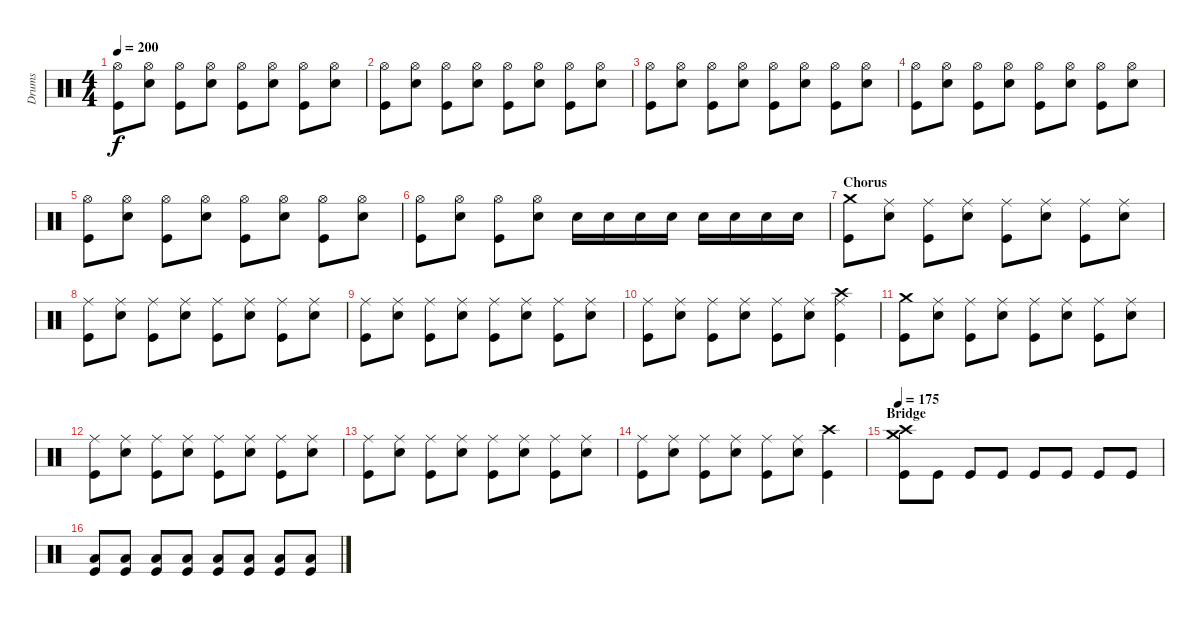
\track ("Drums" "Drums") {instrument percussion}
\staff {score}
\articulation defaults
\ts (4 4)
\tempo 200
\clef neutral
\ks c
("Hi-Hat (open)" "Kick (hit)").8{dy f} ("Hi-Hat (open)" "Snare (hit) 2").8 ("Hi-Hat (open)" "Kick (hit)").8 ("Hi-Hat (open)" "Snare (hit) 2").8 ("Hi-Hat (open)" "Kick (hit)").8 ("Hi-Hat (open)" "Snare (hit) 2").8 ("Hi-Hat (open)" "Kick (hit)").8 ("Hi-Hat (open)" "Snare (hit) 2").8 |
("Hi-Hat (open)" "Kick (hit)").8 ("Hi-Hat (open)" "Snare (hit) 2").8 ("Hi-Hat (open)" "Kick (hit)").8 ("Hi-Hat (open)" "Snare (hit) 2").8 ("Hi-Hat (open)" "Kick (hit)").8 ("Hi-Hat (open)" "Snare (hit) 2").8 ("Hi-Hat (open)" "Kick (hit)").8 ("Hi-Hat (open)" "Snare (hit) 2").8 |
("Hi-Hat (open)" "Kick (hit)").8 ("Hi-Hat (open)" "Snare (hit) 2").8 ("Hi-Hat (open)" "Kick (hit)").8 ("Hi-Hat (open)" "Snare (hit) 2").8 ("Hi-Hat (open)" "Kick (hit)").8 ("Hi-Hat (open)" "Snare (hit) 2").8 ("Hi-Hat (open)" "Kick (hit)").8 ("Hi-Hat (open)" "Snare (hit) 2").8 |
("Hi-Hat (open)" "Kick (hit)").8 ("Hi-Hat (open)" "Snare (hit) 2").8 ("Hi-Hat (open)" "Kick (hit)").8 ("Hi-Hat (open)" "Snare (hit) 2").8 ("Hi-Hat (open)" "Kick (hit)").8 ("Hi-Hat (open)" "Snare (hit) 2").8 ("Hi-Hat (open)" "Kick (hit)").8 ("Hi-Hat (open)" "Snare (hit) 2").8 |
("Hi-Hat (open)" "Kick (hit)").8 ("Hi-Hat (open)" "Snare (hit) 2").8 ("Hi-Hat (open)" "Kick (hit)").8 ("Hi-Hat (open)" "Snare (hit) 2").8 ("Hi-Hat (open)" "Kick (hit)").8 ("Hi-Hat (open)" "Snare (hit) 2").8 ("Hi-Hat (open)" "Kick (hit)").8 ("Hi-Hat (open)" "Snare (hit) 2").8 |
("Hi-Hat (open)" "Kick (hit)").8 ("Hi-Hat (open)" "Snare (hit) 2").8 ("Hi-Hat (open)" "Kick (hit)").8 ("Hi-Hat (open)" "Snare (hit) 2").8 "Snare (hit) 2".16 "Snare (hit) 2".16 "Snare (hit) 2".16 "Snare (hit) 2".16 "Snare (hit) 2".16 "Snare (hit) 2".16 "Snare (hit) 2".16 "Snare (hit) 2".16 |
\section ("" "Chorus")
("Crash medium (hit)" "Kick (hit)").8 ("Ride (middle)" "Snare (hit) 2").8 ("Ride (middle)" "Kick (hit)").8 ("Ride (middle)" "Snare (hit) 2").8 ("Ride (middle)" "Kick (hit)").8 ("Ride (middle)" "Snare (hit) 2").8 ("Ride (middle)" "Kick (hit)").8 ("Ride (middle)" "Snare (hit) 2").8 |
("Ride (middle)" "Kick (hit)").8 ("Ride (middle)" "Snare (hit) 2").8 ("Ride (middle)" "Kick (hit)").8 ("Ride (middle)" "Snare (hit) 2").8 ("Ride (middle)" "Kick (hit)").8 ("Ride (middle)" "Snare (hit) 2").8 ("Ride (middle)" "Kick (hit)").8 ("Ride (middle)" "Snare (hit) 2").8 |
("Ride (middle)" "Kick (hit)").8 ("Ride (middle)" "Snare (hit) 2").8 ("Ride (middle)" "Kick (hit)").8 ("Ride (middle)" "Snare (hit) 2").8 ("Ride (middle)" "Kick (hit)").8 ("Ride (middle)" "Snare (hit) 2").8 ("Ride (middle)" "Kick (hit)").8 ("Ride (middle)" "Snare (hit) 2").8 |
("Ride (middle)" "Kick (hit)").8 ("Ride (middle)" "Snare (hit) 2").8 ("Ride (middle)" "Kick (hit)").8 ("Ride (middle)" "Snare (hit) 2").8 ("Ride (middle)" "Kick (hit)").8 ("Ride (middle)" "Snare (hit) 2").8 ("Crash high (hit)" "Ride (middle)" "Kick (hit)").4 |
("Crash medium (hit)" "Kick (hit)").8 ("Ride (middle)" "Snare (hit) 2").8 ("Ride (middle)" "Kick (hit)").8 ("Ride (middle)" "Snare (hit) 2").8 ("Ride (middle)" "Kick (hit)").8 ("Ride (middle)" "Snare (hit) 2").8 ("Ride (middle)" "Kick (hit)").8 ("Ride (middle)" "Snare (hit) 2").8 |
("Ride (middle)" "Kick (hit)").8 ("Ride (middle)" "Snare (hit) 2").8 ("Ride (middle)" "Kick (hit)").8 ("Ride (middle)" "Snare (hit) 2").8 ("Ride (middle)" "Kick (hit)").8 ("Ride (middle)" "Snare (hit) 2").8 ("Ride (middle)" "Kick (hit)").8 ("Ride (middle)" "Snare (hit) 2").8 |
("Ride (middle)" "Kick (hit)").8 ("Ride (middle)" "Snare (hit) 2").8 ("Ride (middle)" "Kick (hit)").8 ("Ride (middle)" "Snare (hit) 2").8 ("Ride (middle)" "Kick (hit)").8 ("Ride (middle)" "Snare (hit) 2").8 ("Ride (middle)" "Kick (hit)").8 ("Ride (middle)" "Snare (hit) 2").8 |
("Ride (middle)" "Kick (hit)").8 ("Ride (middle)" "Snare (hit) 2").8 ("Ride (middle)" "Kick (hit)").8 ("Ride (middle)" "Snare (hit) 2").8 ("Ride (middle)" "Kick (hit)").8 ("Ride (middle)" "Snare (hit) 2").8 ("Crash high (hit)" "Kick (hit)").4 |
\section ("" "Bridge")
\tempo 175
("Crash medium (hit)" "Crash high (hit)" "Kick (hit)").8 "Kick (hit)".8 "Kick (hit)".8 "Kick (hit)".8 "Kick (hit)".8 "Kick (hit)".8 "Kick (hit)".8 "Kick (hit)".8 |
("Low Floor Tom (hit)" "Kick (hit)").8 ("Low Floor Tom (hit)" "Kick (hit)").8 ("Low Floor Tom (hit)" "Kick (hit)").8 ("Low Floor Tom (hit)" "Kick (hit)").8 ("Low Floor Tom (hit)" "Kick (hit)").8 ("Low Floor Tom (hit)" "Kick (hit)").8 ("Low Floor Tom (hit)" "Kick (hit)").8 ("Low Floor Tom (hit)" "Kick (hit)").8
